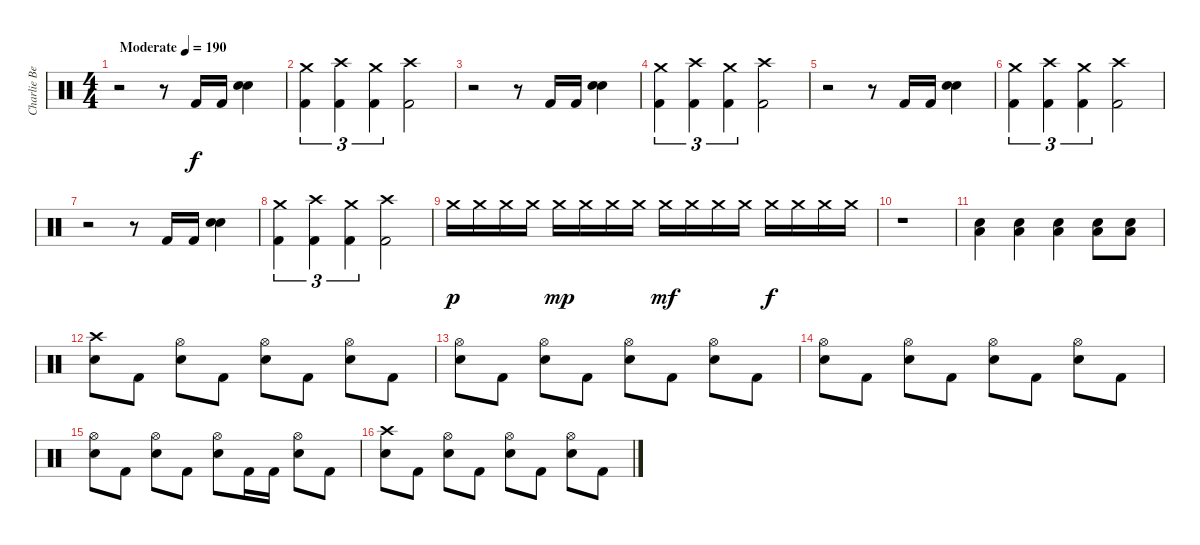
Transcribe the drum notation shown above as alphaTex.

\track ("Charlie Benante" "Charlie Be") {instrument percussion}
\staff {score}
\articulation defaults
\ts (4 4)
\tempo (190 "Moderate")
\clef neutral
\ks c
r.2{dy f} r.8 "Kick (hit) 2".16 "Kick (hit) 2".16 ("Electric Snare (hit)" "Snare (hit) 2").4 |
("Crash medium (hit)" "Kick (hit) 2").4{tu (3 2)} ("Crash high (hit)" "Kick (hit) 2").4{tu (3 2)} ("Crash medium (hit)" "Kick (hit) 2").4{tu (3 2)} ("Crash high (hit)" "Kick (hit) 2").2 |
r.2 r.8 "Kick (hit) 2".16 "Kick (hit) 2".16 ("Electric Snare (hit)" "Snare (hit) 2").4 |
("Crash medium (hit)" "Kick (hit) 2").4{tu (3 2)} ("Crash high (hit)" "Kick (hit) 2").4{tu (3 2)} ("Crash medium (hit)" "Kick (hit) 2").4{tu (3 2)} ("Crash high (hit)" "Kick (hit) 2").2 |
r.2 r.8 "Kick (hit) 2".16 "Kick (hit) 2".16 ("Electric Snare (hit)" "Snare (hit) 2").4 |
("Crash medium (hit)" "Kick (hit) 2").4{tu (3 2)} ("Crash high (hit)" "Kick (hit) 2").4{tu (3 2)} ("Crash medium (hit)" "Kick (hit) 2").4{tu (3 2)} ("Crash high (hit)" "Kick (hit) 2").2 |
r.2 r.8 "Kick (hit) 2".16 "Kick (hit) 2".16 ("Electric Snare (hit)" "Snare (hit) 2").4 |
("Crash medium (hit)" "Kick (hit) 2").4{tu (3 2)} ("Crash high (hit)" "Kick (hit) 2").4{tu (3 2)} ("Crash medium (hit)" "Kick (hit) 2").4{tu (3 2)} ("Crash high (hit)" "Kick (hit) 2").2 |
"Crash medium (hit)".16{dy p} "Crash medium (hit)".16 "Crash medium (hit)".16 "Crash medium (hit)".16 "Crash medium (hit)".16{dy mp} "Crash medium (hit)".16 "Crash medium (hit)".16 "Crash medium (hit)".16 "Crash medium (hit)".16{dy mf} "Crash medium (hit)".16 "Crash medium (hit)".16 "Crash medium (hit)".16 "Crash medium (hit)".16{dy f} "Crash medium (hit)".16 "Crash medium (hit)".16 "Crash medium (hit)".16 |
r.1 |
("Low Floor Tom (hit)" "Snare (hit) 2").4 ("Low Floor Tom (hit)" "Snare (hit) 2").4 ("Low Floor Tom (hit)" "Snare (hit) 2").4 ("Low Floor Tom (hit)" "Snare (hit) 2").8 ("Low Floor Tom (hit)" "Snare (hit) 2").8 |
("Snare (hit) 2" "Crash high (hit)").8 "Kick (hit) 2".8 ("Snare (hit) 2" "Hi-Hat (open)").8 "Kick (hit) 2".8 ("Snare (hit) 2" "Hi-Hat (open)").8 "Kick (hit) 2".8 ("Snare (hit) 2" "Hi-Hat (open)").8 "Kick (hit) 2".8 |
("Snare (hit) 2" "Hi-Hat (open)").8 "Kick (hit) 2".8 ("Snare (hit) 2" "Hi-Hat (open)").8 "Kick (hit) 2".8 ("Snare (hit) 2" "Hi-Hat (open)").8 "Kick (hit) 2".8 ("Snare (hit) 2" "Hi-Hat (open)").8 "Kick (hit) 2".8 |
("Snare (hit) 2" "Hi-Hat (open)").8 "Kick (hit) 2".8 ("Snare (hit) 2" "Hi-Hat (open)").8 "Kick (hit) 2".8 ("Snare (hit) 2" "Hi-Hat (open)").8 "Kick (hit) 2".8 ("Snare (hit) 2" "Hi-Hat (open)").8 "Kick (hit) 2".8 |
("Snare (hit) 2" "Hi-Hat (open)").8 "Kick (hit) 2".8 ("Snare (hit) 2" "Hi-Hat (open)").8 "Kick (hit) 2".8 ("Snare (hit) 2" "Hi-Hat (open)").8 "Kick (hit) 2".16 "Kick (hit) 2".16 ("Snare (hit) 2" "Hi-Hat (open)").8 "Kick (hit) 2".8 |
("Snare (hit) 2" "Crash high (hit)").8 "Kick (hit) 2".8 ("Snare (hit) 2" "Hi-Hat (open)").8 "Kick (hit) 2".8 ("Snare (hit) 2" "Hi-Hat (open)").8 "Kick (hit) 2".8 ("Snare (hit) 2" "Hi-Hat (open)").8 "Kick (hit) 2".8
